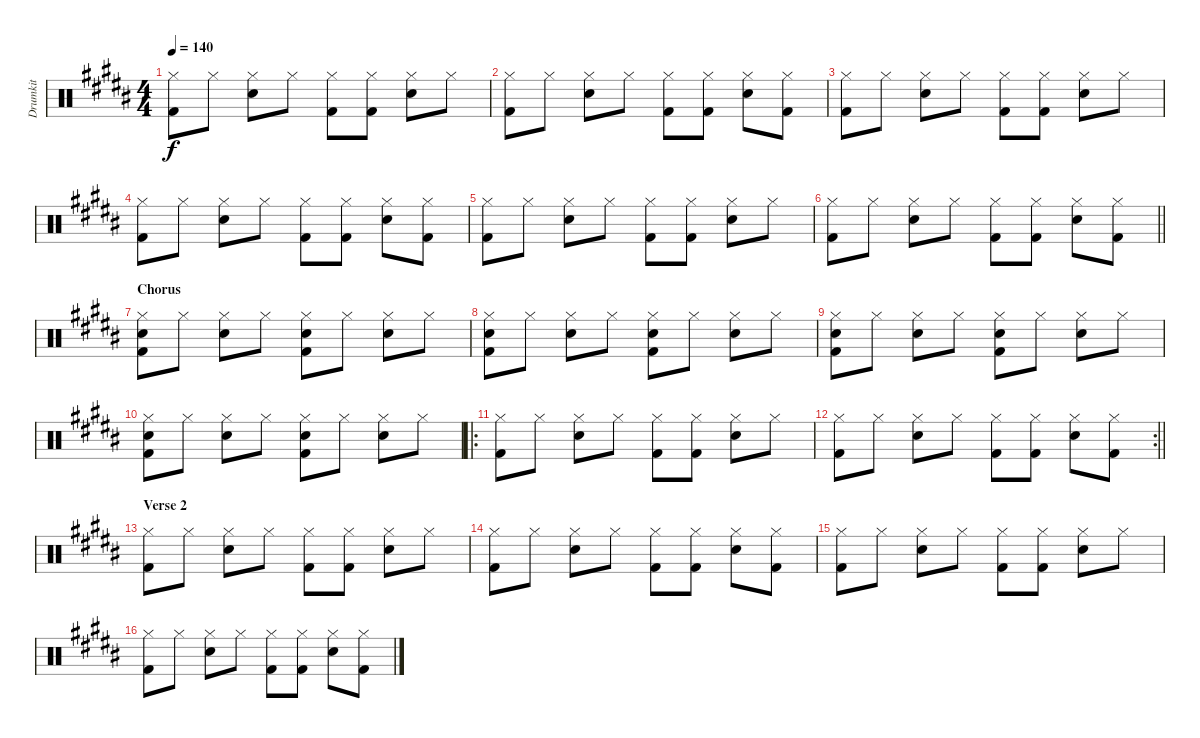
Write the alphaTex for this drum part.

\track ("Drumkit" "Drumkit") {instrument percussion}
\staff {score}
\articulation defaults
\ts (4 4)
\tempo 140
\clef neutral
\ks b
("Hi-Hat (closed)" "Kick (hit) 2").8{dy f} "Hi-Hat (closed)".8 ("Hi-Hat (closed)" "Snare (hit) 2").8 "Hi-Hat (closed)".8 ("Hi-Hat (closed)" "Kick (hit) 2").8 ("Hi-Hat (closed)" "Kick (hit) 2").8 ("Hi-Hat (closed)" "Snare (hit) 2").8 "Hi-Hat (closed)".8 |
("Hi-Hat (closed)" "Kick (hit) 2").8 "Hi-Hat (closed)".8 ("Hi-Hat (closed)" "Snare (hit) 2").8 "Hi-Hat (closed)".8 ("Hi-Hat (closed)" "Kick (hit) 2").8 ("Hi-Hat (closed)" "Kick (hit) 2").8 ("Hi-Hat (closed)" "Snare (hit) 2").8 ("Hi-Hat (closed)" "Kick (hit) 2").8 |
("Hi-Hat (closed)" "Kick (hit) 2").8 "Hi-Hat (closed)".8 ("Hi-Hat (closed)" "Snare (hit) 2").8 "Hi-Hat (closed)".8 ("Hi-Hat (closed)" "Kick (hit) 2").8 ("Hi-Hat (closed)" "Kick (hit) 2").8 ("Hi-Hat (closed)" "Snare (hit) 2").8 "Hi-Hat (closed)".8 |
("Hi-Hat (closed)" "Kick (hit) 2").8 "Hi-Hat (closed)".8 ("Hi-Hat (closed)" "Snare (hit) 2").8 "Hi-Hat (closed)".8 ("Hi-Hat (closed)" "Kick (hit) 2").8 ("Hi-Hat (closed)" "Kick (hit) 2").8 ("Hi-Hat (closed)" "Snare (hit) 2").8 ("Hi-Hat (closed)" "Kick (hit) 2").8 |
("Hi-Hat (closed)" "Kick (hit) 2").8 "Hi-Hat (closed)".8 ("Hi-Hat (closed)" "Snare (hit) 2").8 "Hi-Hat (closed)".8 ("Hi-Hat (closed)" "Kick (hit) 2").8 ("Hi-Hat (closed)" "Kick (hit) 2").8 ("Hi-Hat (closed)" "Snare (hit) 2").8 "Hi-Hat (closed)".8 |
\barLineRight lightlight
("Hi-Hat (closed)" "Kick (hit) 2").8 "Hi-Hat (closed)".8 ("Hi-Hat (closed)" "Snare (hit) 2").8 "Hi-Hat (closed)".8 ("Hi-Hat (closed)" "Kick (hit) 2").8 ("Hi-Hat (closed)" "Kick (hit) 2").8 ("Hi-Hat (closed)" "Snare (hit) 2").8 ("Hi-Hat (closed)" "Kick (hit) 2").8 |
\section ("" "Chorus")
("Hi-Hat (closed)" "Snare (hit) 2" "Kick (hit) 2").8 "Hi-Hat (closed)".8 ("Hi-Hat (closed)" "Snare (hit) 2").8 "Hi-Hat (closed)".8 ("Hi-Hat (closed)" "Snare (hit) 2" "Kick (hit) 2").8 "Hi-Hat (closed)".8 ("Hi-Hat (closed)" "Snare (hit) 2").8 "Hi-Hat (closed)".8 |
("Hi-Hat (closed)" "Snare (hit) 2" "Kick (hit) 2").8 "Hi-Hat (closed)".8 ("Hi-Hat (closed)" "Snare (hit) 2").8 "Hi-Hat (closed)".8 ("Hi-Hat (closed)" "Snare (hit) 2" "Kick (hit) 2").8 "Hi-Hat (closed)".8 ("Hi-Hat (closed)" "Snare (hit) 2").8 "Hi-Hat (closed)".8 |
("Hi-Hat (closed)" "Snare (hit) 2" "Kick (hit) 2").8 "Hi-Hat (closed)".8 ("Hi-Hat (closed)" "Snare (hit) 2").8 "Hi-Hat (closed)".8 ("Hi-Hat (closed)" "Snare (hit) 2" "Kick (hit) 2").8 "Hi-Hat (closed)".8 ("Hi-Hat (closed)" "Snare (hit) 2").8 "Hi-Hat (closed)".8 |
("Hi-Hat (closed)" "Snare (hit) 2" "Kick (hit) 2").8 "Hi-Hat (closed)".8 ("Hi-Hat (closed)" "Snare (hit) 2").8 "Hi-Hat (closed)".8 ("Hi-Hat (closed)" "Snare (hit) 2" "Kick (hit) 2").8 "Hi-Hat (closed)".8 ("Hi-Hat (closed)" "Snare (hit) 2").8 "Hi-Hat (closed)".8 |
\ro
("Hi-Hat (closed)" "Kick (hit) 2").8 "Hi-Hat (closed)".8 ("Hi-Hat (closed)" "Snare (hit) 2").8 "Hi-Hat (closed)".8 ("Hi-Hat (closed)" "Kick (hit) 2").8 ("Hi-Hat (closed)" "Kick (hit) 2").8 ("Hi-Hat (closed)" "Snare (hit) 2").8 "Hi-Hat (closed)".8 |
\rc 2
\barLineRight lightlight
("Hi-Hat (closed)" "Kick (hit) 2").8 "Hi-Hat (closed)".8 ("Hi-Hat (closed)" "Snare (hit) 2").8 "Hi-Hat (closed)".8 ("Hi-Hat (closed)" "Kick (hit) 2").8 ("Hi-Hat (closed)" "Kick (hit) 2").8 ("Hi-Hat (closed)" "Snare (hit) 2").8 ("Hi-Hat (closed)" "Kick (hit) 2").8 |
\section ("" "Verse 2")
("Hi-Hat (closed)" "Kick (hit) 2").8 "Hi-Hat (closed)".8 ("Hi-Hat (closed)" "Snare (hit) 2").8 "Hi-Hat (closed)".8 ("Hi-Hat (closed)" "Kick (hit) 2").8 ("Hi-Hat (closed)" "Kick (hit) 2").8 ("Hi-Hat (closed)" "Snare (hit) 2").8 "Hi-Hat (closed)".8 |
("Hi-Hat (closed)" "Kick (hit) 2").8 "Hi-Hat (closed)".8 ("Hi-Hat (closed)" "Snare (hit) 2").8 "Hi-Hat (closed)".8 ("Hi-Hat (closed)" "Kick (hit) 2").8 ("Hi-Hat (closed)" "Kick (hit) 2").8 ("Hi-Hat (closed)" "Snare (hit) 2").8 ("Hi-Hat (closed)" "Kick (hit) 2").8 |
("Hi-Hat (closed)" "Kick (hit) 2").8 "Hi-Hat (closed)".8 ("Hi-Hat (closed)" "Snare (hit) 2").8 "Hi-Hat (closed)".8 ("Hi-Hat (closed)" "Kick (hit) 2").8 ("Hi-Hat (closed)" "Kick (hit) 2").8 ("Hi-Hat (closed)" "Snare (hit) 2").8 "Hi-Hat (closed)".8 |
("Hi-Hat (closed)" "Kick (hit) 2").8 "Hi-Hat (closed)".8 ("Hi-Hat (closed)" "Snare (hit) 2").8 "Hi-Hat (closed)".8 ("Hi-Hat (closed)" "Kick (hit) 2").8 ("Hi-Hat (closed)" "Kick (hit) 2").8 ("Hi-Hat (closed)" "Snare (hit) 2").8 ("Hi-Hat (closed)" "Kick (hit) 2").8
